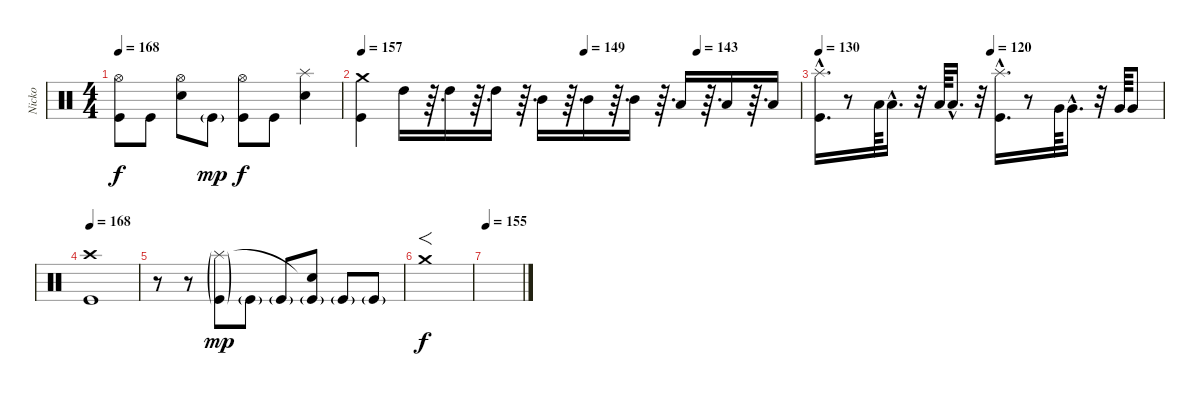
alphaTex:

\track ("Nicko" "Nicko") {instrument percussion}
\staff {score}
\articulation defaults
\ts (4 4)
\tempo 168
\clef neutral
\ks c
("Kick (hit)" "Hi-Hat (open)").8{dy f} "Kick (hit)".8 ("Electric Snare (hit)" "Hi-Hat (open)").8 "Kick (hit)"{g}.8{dy mp} ("Kick (hit)" "Hi-Hat (open)").8{dy f} "Kick (hit)".8 ("Electric Snare (hit)" "Splash (hit)").4 |
\tempo 157
\tempo (149 0.5078125)
\tempo (143 0.765625)
("Kick (hit)" "Crash medium (hit)").4 "High Tom (hit)".16 r.64{d} "High Tom (hit)".16 r.64{d} "High Tom (hit)".16 r.64{d} "Mid Tom (hit)".16 r.64{d} "Mid Tom (hit)".16 r.64{d} "Mid Tom (hit)".16 r.64{d} "Low Tom (hit)".16 r.64{d} "Low Tom (hit)".16 r.64{d} "Low Tom (hit)".16 |
\tempo 130
\tempo (120 0.5)
("Kick (hit)"{hac} "Splash (hit)"{hac}).16{d} r.8 "Low Tom (hit)".64 "Low Tom (hit)"{hac}.16{d} r.32 "Low Tom (hit)".64 "Low Tom (hit)"{hac}.16{d} r.32 ("Kick (hit)"{hac} "Splash (hit)"{hac}).16{d} r.8 "Very Low Tom (hit)".64 "Very Low Tom (hit)"{hac}.16{d} r.32 "Very Low Tom (hit)".64 "Very Low Tom (hit)".8 |
\tempo 168
("Kick (hit)" "Crash high (hit)").1 |
r.8 r.8 ("Kick (hit)"{g} "Splash (hit)"{g}).8{dy mp} "Kick (hit)"{g}.8 "Kick (hit)"{g}.8 ("Kick (hit)"{g} "Snare (hit)"{t}).8 "Kick (hit)"{g}.8 "Kick (hit)"{g}.8 |
"Crash medium (hit)".1{f dy f} |
\tempo 155
